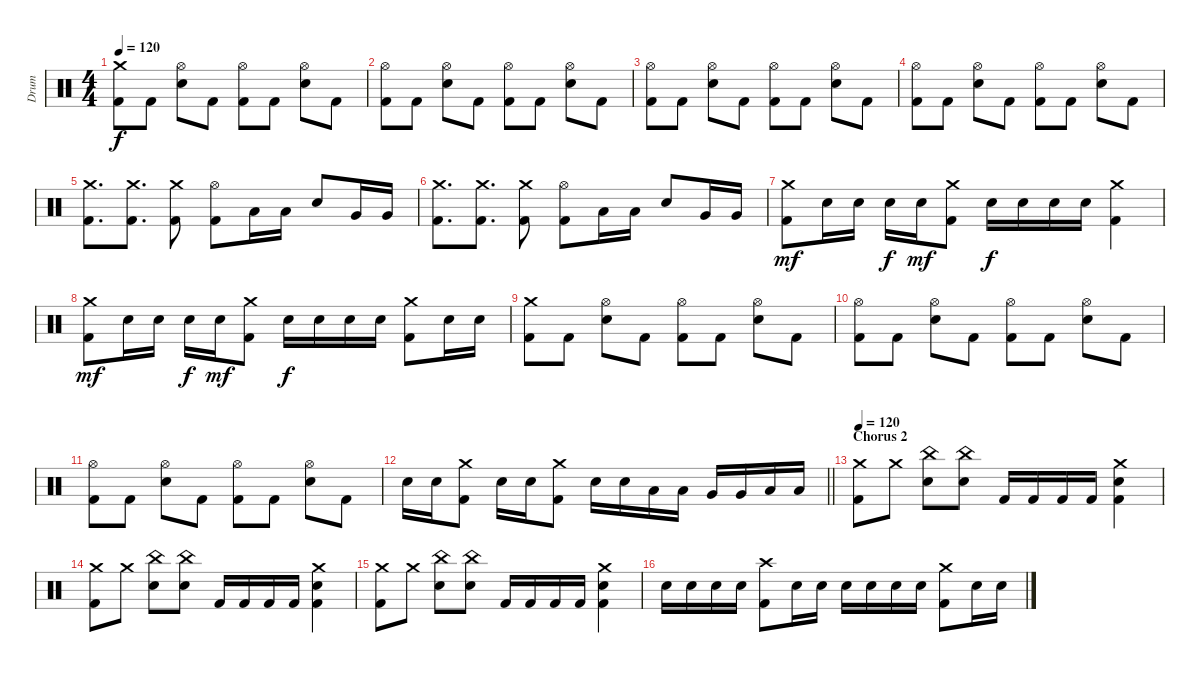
\track ("Drum" "Drum") {instrument percussion}
\staff {score}
\articulation defaults
\ts (4 4)
\tempo 120
\clef neutral
\ks c
("Crash medium (hit)" "Kick (hit) 2").8{dy f} "Kick (hit) 2".8 ("Hi-Hat (open)" "Snare (hit) 2").8 "Kick (hit) 2".8 ("Hi-Hat (open)" "Kick (hit) 2").8 "Kick (hit) 2".8 ("Hi-Hat (open)" "Snare (hit) 2").8 "Kick (hit) 2".8 |
("Hi-Hat (open)" "Kick (hit) 2").8 "Kick (hit) 2".8 ("Hi-Hat (open)" "Snare (hit) 2").8 "Kick (hit) 2".8 ("Hi-Hat (open)" "Kick (hit) 2").8 "Kick (hit) 2".8 ("Hi-Hat (open)" "Snare (hit) 2").8 "Kick (hit) 2".8 |
("Hi-Hat (open)" "Kick (hit) 2").8 "Kick (hit) 2".8 ("Hi-Hat (open)" "Snare (hit) 2").8 "Kick (hit) 2".8 ("Hi-Hat (open)" "Kick (hit) 2").8 "Kick (hit) 2".8 ("Hi-Hat (open)" "Snare (hit) 2").8 "Kick (hit) 2".8 |
("Hi-Hat (open)" "Kick (hit) 2").8 "Kick (hit) 2".8 ("Hi-Hat (open)" "Snare (hit) 2").8 "Kick (hit) 2".8 ("Hi-Hat (open)" "Kick (hit) 2").8 "Kick (hit) 2".8 ("Hi-Hat (open)" "Snare (hit) 2").8 "Kick (hit) 2".8 |
("Crash medium (hit)" "Kick (hit) 2").8{d} ("Crash medium (hit)" "Kick (hit) 2").8{d} ("Crash medium (hit)" "Kick (hit) 2").8 ("Hi-Hat (open)" "Kick (hit) 2").8 "Low Tom (hit)".16 "Low Tom (hit)".16 "Snare (hit) 2".8 "Very Low Tom (hit)".16 "Very Low Tom (hit)".16 |
("Crash medium (hit)" "Kick (hit) 2").8{d} ("Crash medium (hit)" "Kick (hit) 2").8{d} ("Crash medium (hit)" "Kick (hit) 2").8 ("Hi-Hat (open)" "Kick (hit) 2").8 "Low Tom (hit)".16 "Low Tom (hit)".16 "Snare (hit) 2".8 "Very Low Tom (hit)".16 "Very Low Tom (hit)".16 |
("Crash medium (hit)" "Kick (hit) 2").8{dy mf} "Snare (hit) 2".16 "Snare (hit) 2".16 "Snare (hit) 2".16{dy f} "Snare (hit) 2".16{dy mf} ("Crash medium (hit)" "Kick (hit) 2").8 "Snare (hit) 2".16{dy f} "Snare (hit) 2".16 "Snare (hit) 2".16 "Snare (hit) 2".16 ("Crash medium (hit)" "Kick (hit) 2").4 |
("Crash medium (hit)" "Kick (hit) 2").8{dy mf} "Snare (hit) 2".16 "Snare (hit) 2".16 "Snare (hit) 2".16{dy f} "Snare (hit) 2".16{dy mf} ("Crash medium (hit)" "Kick (hit) 2").8 "Snare (hit) 2".16{dy f} "Snare (hit) 2".16 "Snare (hit) 2".16 "Snare (hit) 2".16 ("Crash medium (hit)" "Kick (hit) 2").8 "Snare (hit) 2".16 "Snare (hit) 2".16 |
("Crash medium (hit)" "Kick (hit) 2").8 "Kick (hit) 2".8 ("Hi-Hat (open)" "Snare (hit) 2").8 "Kick (hit) 2".8 ("Hi-Hat (open)" "Kick (hit) 2").8 "Kick (hit) 2".8 ("Hi-Hat (open)" "Snare (hit) 2").8 "Kick (hit) 2".8 |
("Hi-Hat (open)" "Kick (hit) 2").8 "Kick (hit) 2".8 ("Hi-Hat (open)" "Snare (hit) 2").8 "Kick (hit) 2".8 ("Hi-Hat (open)" "Kick (hit) 2").8 "Kick (hit) 2".8 ("Hi-Hat (open)" "Snare (hit) 2").8 "Kick (hit) 2".8 |
("Hi-Hat (open)" "Kick (hit) 2").8 "Kick (hit) 2".8 ("Hi-Hat (open)" "Snare (hit) 2").8 "Kick (hit) 2".8 ("Hi-Hat (open)" "Kick (hit) 2").8 "Kick (hit) 2".8 ("Hi-Hat (open)" "Snare (hit) 2").8 "Kick (hit) 2".8 |
\barLineRight lightlight "Snare (hit) 2".16 "Snare (hit) 2".16
("Crash medium (hit)" "Kick (hit) 2").8 "Snare (hit) 2".16 "Snare (hit) 2".16 ("Crash medium (hit)" "Kick (hit) 2").8 "Snare (hit) 2".16 "Snare (hit) 2".16 "Low Tom (hit)".16 "Low Tom (hit)".16 "Very Low Tom (hit)".16 "Very Low Tom (hit)".16 "Low Floor Tom (hit)".16 "Low Floor Tom (hit)".16 |
\section ("" "Chorus 2")
\tempo 120
("Crash medium (hit)" "Kick (hit) 2").8 "Crash medium (hit)".8 ("China (hit)" "Snare (hit) 2").8 ("China (hit)" "Snare (hit) 2").8 "Kick (hit) 2".16 "Kick (hit) 2".16 "Kick (hit) 2".16 "Kick (hit) 2".16 ("Crash medium (hit)" "Snare (hit) 2" "Kick (hit) 2").4 |
("Crash medium (hit)" "Kick (hit) 2").8 "Crash medium (hit)".8 ("China (hit)" "Snare (hit) 2").8 ("China (hit)" "Snare (hit) 2").8 "Kick (hit) 2".16 "Kick (hit) 2".16 "Kick (hit) 2".16 "Kick (hit) 2".16 ("Crash medium (hit)" "Snare (hit) 2" "Kick (hit) 2").4 |
("Crash medium (hit)" "Kick (hit) 2").8 "Crash medium (hit)".8 ("China (hit)" "Snare (hit) 2").8 ("China (hit)" "Snare (hit) 2").8 "Kick (hit) 2".16 "Kick (hit) 2".16 "Kick (hit) 2".16 "Kick (hit) 2".16 ("Crash medium (hit)" "Snare (hit) 2" "Kick (hit) 2").4 |
"Snare (hit) 2".16 "Snare (hit) 2".16 "Snare (hit) 2".16 "Snare (hit) 2".16 ("Crash high (hit)" "Kick (hit) 2").8 "Snare (hit) 2".16 "Snare (hit) 2".16 "Snare (hit) 2".16 "Snare (hit) 2".16 "Snare (hit) 2".16 "Snare (hit) 2".16 ("Crash medium (hit)" "Kick (hit) 2").8 "Snare (hit) 2".16 "Snare (hit) 2".16
